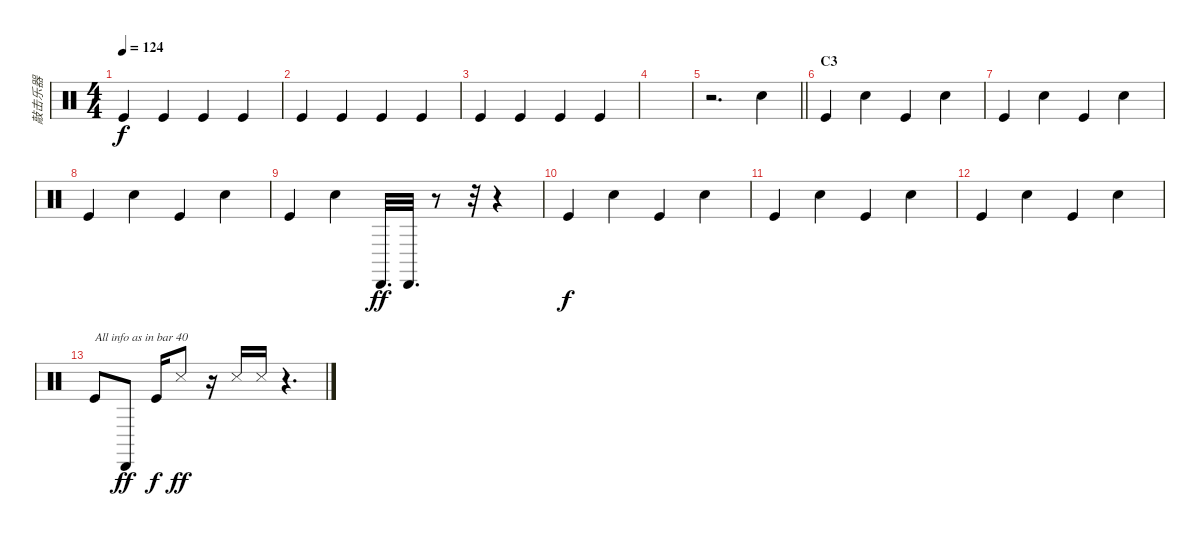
\track ("敲击乐器" "敲击乐器") {instrument percussion}
\staff {score}
\articulation defaults
\ts (4 4)
\tempo 124
\clef neutral
\ks c "Kick (hit)".4{dy f} "Kick (hit)".4 "Kick (hit)".4 "Kick (hit)".4
|
"Kick (hit)".4 "Kick (hit)".4 "Kick (hit)".4 "Kick (hit)".4 |
"Kick (hit)".4 "Kick (hit)".4 "Kick (hit)".4 "Kick (hit)".4 |
|
\barLineRight lightlight
r.2{d} "Snare (hit) 2".4 |
\section ("" "C3")
"Kick (hit)".4 "Snare (hit) 2".4 "Kick (hit)".4 "Snare (hit) 2".4 |
"Kick (hit)".4 "Snare (hit) 2".4 "Kick (hit)".4 "Snare (hit) 2".4 |
"Kick (hit)".4 "Snare (hit) 2".4 "Kick (hit)".4 "Snare (hit) 2".4 |
"Kick (hit)".4 "Snare (hit) 2".4 "Cabasa (hit)".32{d dy ff} "Cabasa (hit)".32{d} r.8 r.32 r.4 |
"Kick (hit)".4{dy f} "Snare (hit) 2".4 "Kick (hit)".4 "Snare (hit) 2".4 |
"Kick (hit)".4 "Snare (hit) 2".4 "Kick (hit)".4 "Snare (hit) 2".4 |
"Kick (hit)".4 "Snare (hit) 2".4 "Kick (hit)".4 "Snare (hit) 2".4 |
"Kick (hit)".8{txt "All info as in bar 40"} "Cabasa (hit)".8{dy ff} "Kick (hit)".16{dy f} "Snare (side stick) 3".8{dy ff} r.16 "Snare (side stick) 3".16{beam Up} "Metronome (hit)".16{beam Up} r.4{d}
